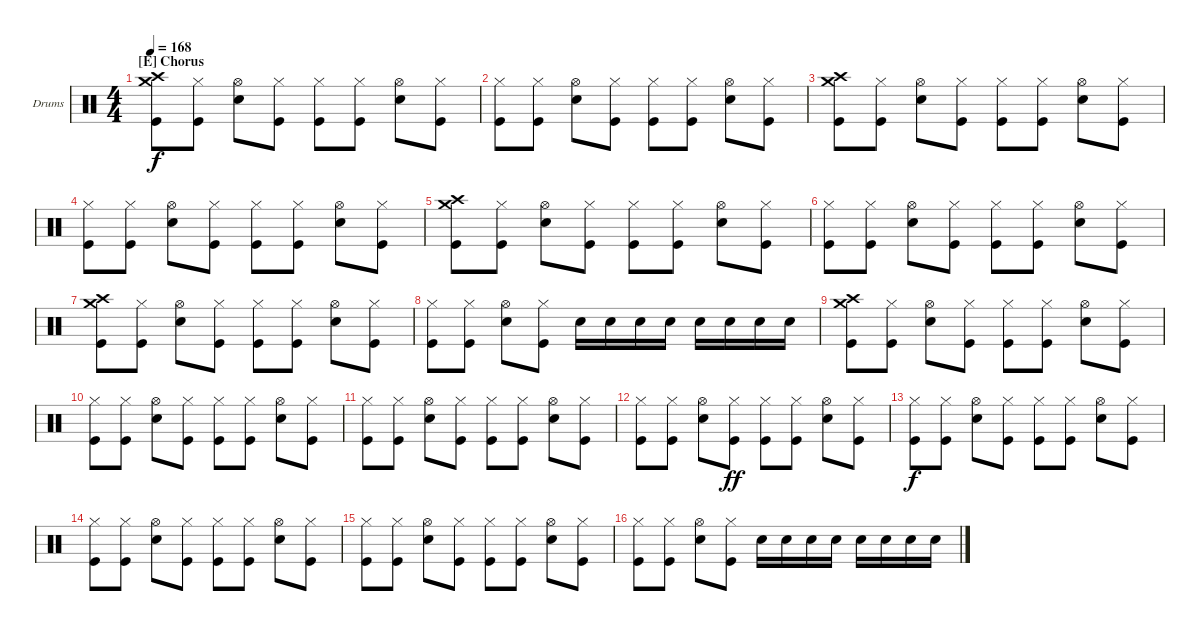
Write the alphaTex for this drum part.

\bracketExtendMode groupsimilarinstruments
\firstSystemTrackNameOrientation horizontal
\otherSystemsTrackNameOrientation horizontal
\track ("Drumkit" "Drums") {instrument percussion}
\staff {score}
\articulation defaults
\ts (4 4)
\section ("E" "Chorus")
\tempo 168
\clef neutral
\scale
1.05296
\ks c
("Crash high (hit)" "Crash medium (hit)" "Kick (hit)").8{dy f} ("Hi-Hat (closed)" "Kick (hit)").8 ("Hi-Hat (open)" "Snare (hit) 2").8 ("Hi-Hat (closed)" "Kick (hit)").8 ("Hi-Hat (closed)" "Kick (hit)").8 ("Hi-Hat (closed)" "Kick (hit)").8 ("Hi-Hat (open)" "Snare (hit) 2").8 ("Hi-Hat (closed)" "Kick (hit)").8 |
\scale
0.973518 ("Hi-Hat (closed)" "Kick (hit)").8 ("Hi-Hat (closed)" "Kick (hit)").8 ("Hi-Hat (open)" "Snare (hit) 2").8 ("Hi-Hat (closed)" "Kick (hit)").8 ("Hi-Hat (closed)" "Kick (hit)").8 ("Hi-Hat (closed)" "Kick (hit)").8 ("Hi-Hat (open)" "Snare (hit) 2").8 ("Hi-Hat (closed)" "Kick (hit)").8 |
\scale
0.973518 ("Crash medium (hit)" "Crash high (hit)" "Kick (hit)").8 ("Hi-Hat (closed)" "Kick (hit)").8 ("Hi-Hat (open)" "Snare (hit) 2").8 ("Hi-Hat (closed)" "Kick (hit)").8 ("Hi-Hat (closed)" "Kick (hit)").8 ("Hi-Hat (closed)" "Kick (hit)").8 ("Hi-Hat (open)" "Snare (hit) 2").8 ("Hi-Hat (closed)" "Kick (hit)").8 |
\scale
1.05296 ("Hi-Hat (closed)" "Kick (hit)").8 ("Hi-Hat (closed)" "Kick (hit)").8 ("Hi-Hat (open)" "Snare (hit) 2").8 ("Hi-Hat (closed)" "Kick (hit)").8 ("Hi-Hat (closed)" "Kick (hit)").8 ("Hi-Hat (closed)" "Kick (hit)").8 ("Hi-Hat (open)" "Snare (hit) 2").8 ("Hi-Hat (closed)" "Kick (hit)").8 |
\scale
0.973518 ("Crash medium (hit)" "Crash high (hit)" "Kick (hit)").8 ("Hi-Hat (closed)" "Kick (hit)").8 ("Hi-Hat (open)" "Snare (hit) 2").8 ("Hi-Hat (closed)" "Kick (hit)").8 ("Hi-Hat (closed)" "Kick (hit)").8 ("Hi-Hat (closed)" "Kick (hit)").8 ("Hi-Hat (open)" "Snare (hit) 2").8 ("Hi-Hat (closed)" "Kick (hit)").8 |
\scale
0.973518 ("Hi-Hat (closed)" "Kick (hit)").8 ("Hi-Hat (closed)" "Kick (hit)").8 ("Hi-Hat (open)" "Snare (hit) 2").8 ("Hi-Hat (closed)" "Kick (hit)").8 ("Hi-Hat (closed)" "Kick (hit)").8 ("Hi-Hat (closed)" "Kick (hit)").8 ("Hi-Hat (open)" "Snare (hit) 2").8 ("Hi-Hat (closed)" "Kick (hit)").8 |
\scale
1.05296 ("Crash high (hit)" "Crash medium (hit)" "Kick (hit)").8 ("Hi-Hat (closed)" "Kick (hit)").8 ("Hi-Hat (open)" "Snare (hit) 2").8 ("Hi-Hat (closed)" "Kick (hit)").8 ("Hi-Hat (closed)" "Kick (hit)").8 ("Hi-Hat (closed)" "Kick (hit)").8 ("Hi-Hat (open)" "Snare (hit) 2").8 ("Hi-Hat (closed)" "Kick (hit)").8 |
\scale
0.973518 ("Hi-Hat (closed)" "Kick (hit)").8 ("Hi-Hat (closed)" "Kick (hit)").8 ("Hi-Hat (open)" "Snare (hit) 2").8 ("Hi-Hat (closed)" "Kick (hit)").8 "Snare (hit) 2".16 "Snare (hit) 2".16 "Snare (hit) 2".16 "Snare (hit) 2".16 "Snare (hit) 2".16 "Snare (hit) 2".16 "Snare (hit) 2".16 "Snare (hit) 2".16 |
\scale
0.973518 ("Crash high (hit)" "Crash medium (hit)" "Kick (hit)").8 ("Hi-Hat (closed)" "Kick (hit)").8 ("Hi-Hat (open)" "Snare (hit) 2").8 ("Hi-Hat (closed)" "Kick (hit)").8 ("Hi-Hat (closed)" "Kick (hit)").8 ("Hi-Hat (closed)" "Kick (hit)").8 ("Hi-Hat (open)" "Snare (hit) 2").8 ("Hi-Hat (closed)" "Kick (hit)").8 |
\scale
1.05296 ("Hi-Hat (closed)" "Kick (hit)").8 ("Hi-Hat (closed)" "Kick (hit)").8 ("Hi-Hat (open)" "Snare (hit) 2").8 ("Hi-Hat (closed)" "Kick (hit)").8 ("Hi-Hat (closed)" "Kick (hit)").8 ("Hi-Hat (closed)" "Kick (hit)").8 ("Hi-Hat (open)" "Snare (hit) 2").8 ("Hi-Hat (closed)" "Kick (hit)").8 |
\scale
0.973518 ("Hi-Hat (closed)" "Kick (hit)").8 ("Hi-Hat (closed)" "Kick (hit)").8 ("Hi-Hat (open)" "Snare (hit) 2").8 ("Hi-Hat (closed)" "Kick (hit)").8 ("Hi-Hat (closed)" "Kick (hit)").8 ("Hi-Hat (closed)" "Kick (hit)").8 ("Hi-Hat (open)" "Snare (hit) 2").8 ("Hi-Hat (closed)" "Kick (hit)").8 |
\scale
0.973518 ("Hi-Hat (closed)" "Kick (hit)").8 ("Hi-Hat (closed)" "Kick (hit)").8 ("Hi-Hat (open)" "Snare (hit) 2").8 ("Hi-Hat (closed)" "Kick (hit)").8{dy ff} ("Hi-Hat (closed)" "Kick (hit)").8 ("Hi-Hat (closed)" "Kick (hit)").8 ("Hi-Hat (open)" "Snare (hit) 2").8 ("Hi-Hat (closed)" "Kick (hit)").8 |
\scale
1.05296 ("Hi-Hat (closed)" "Kick (hit)").8{dy f} ("Hi-Hat (closed)" "Kick (hit)").8 ("Hi-Hat (open)" "Snare (hit) 2").8 ("Hi-Hat (closed)" "Kick (hit)").8 ("Hi-Hat (closed)" "Kick (hit)").8 ("Hi-Hat (closed)" "Kick (hit)").8 ("Hi-Hat (open)" "Snare (hit) 2").8 ("Hi-Hat (closed)" "Kick (hit)").8 |
\scale
0.973518 ("Hi-Hat (closed)" "Kick (hit)").8 ("Hi-Hat (closed)" "Kick (hit)").8 ("Hi-Hat (open)" "Snare (hit) 2").8 ("Hi-Hat (closed)" "Kick (hit)").8 ("Hi-Hat (closed)" "Kick (hit)").8 ("Hi-Hat (closed)" "Kick (hit)").8 ("Hi-Hat (open)" "Snare (hit) 2").8 ("Hi-Hat (closed)" "Kick (hit)").8 |
\scale
0.973518 ("Hi-Hat (closed)" "Kick (hit)").8 ("Hi-Hat (closed)" "Kick (hit)").8 ("Hi-Hat (open)" "Snare (hit) 2").8 ("Hi-Hat (closed)" "Kick (hit)").8 ("Hi-Hat (closed)" "Kick (hit)").8 ("Hi-Hat (closed)" "Kick (hit)").8 ("Hi-Hat (open)" "Snare (hit) 2").8 ("Hi-Hat (closed)" "Kick (hit)").8 |
\scale
1.05296 ("Hi-Hat (closed)" "Kick (hit)").8 ("Hi-Hat (closed)" "Kick (hit)").8 ("Hi-Hat (open)" "Snare (hit) 2").8 ("Hi-Hat (closed)" "Kick (hit)").8 "Snare (hit) 2".16 "Snare (hit) 2".16 "Snare (hit) 2".16 "Snare (hit) 2".16 "Snare (hit) 2".16 "Snare (hit) 2".16 "Snare (hit) 2".16 "Snare (hit) 2".16
